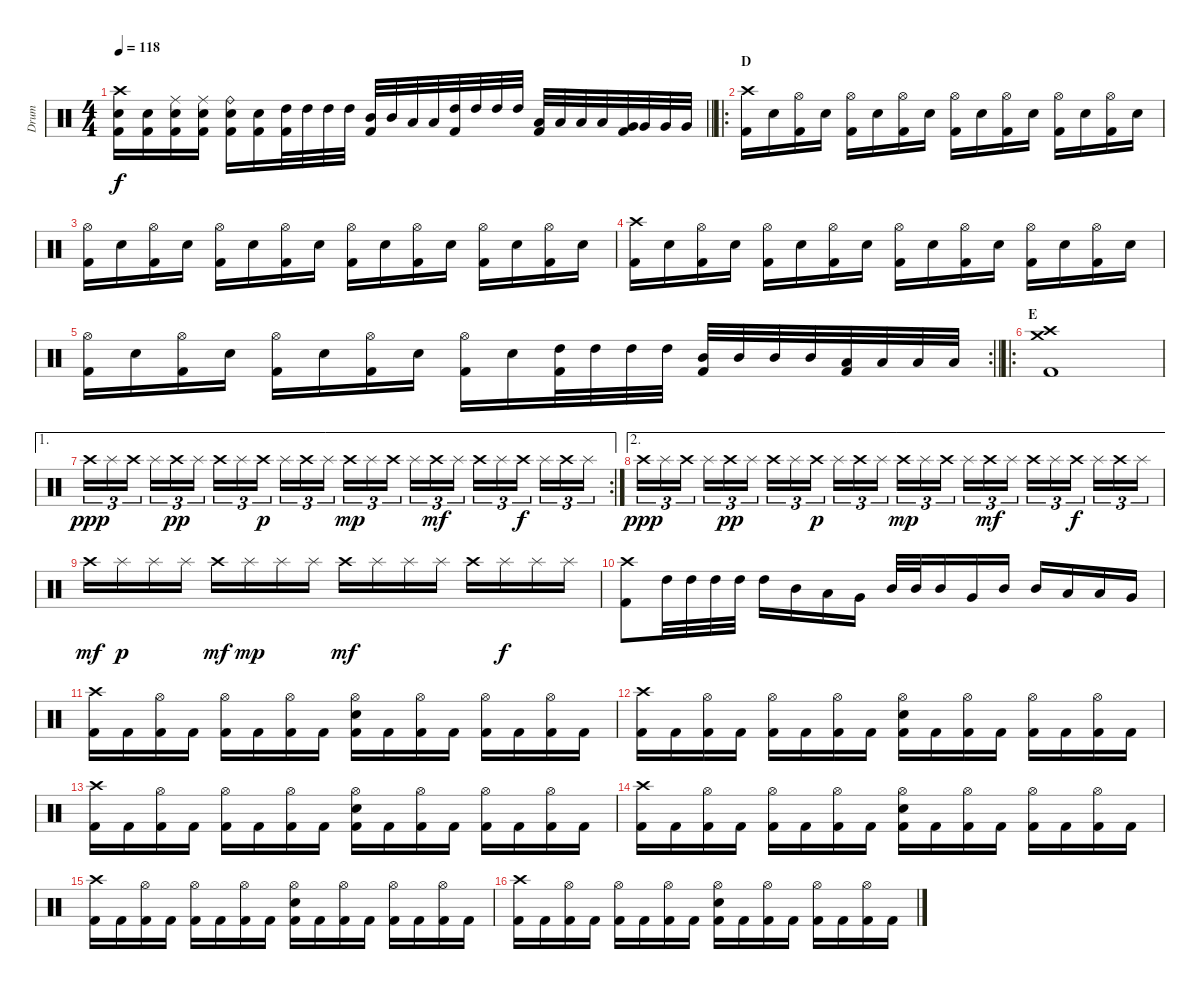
\track ("Drum" "Drum") {instrument percussion}
\staff {score}
\articulation defaults
\ts (4 4)
\tempo 118
\clef neutral
\barLineRight lightlight
\ks c
("Crash high (hit)" "Electric Snare (hit)" "Kick (hit) 2").16{dy f} ("Electric Snare (hit)" "Kick (hit) 2").16 ("Ride (middle)" "Electric Snare (hit)" "Kick (hit) 2").16 ("Ride (middle)" "Electric Snare (hit)" "Kick (hit) 2").16 ("Ride (bell)" "Electric Snare (hit)" "Kick (hit) 2").16 ("Electric Snare (hit)" "Kick (hit) 2").16 ("High Tom (hit)" "Kick (hit) 2").32 "High Tom (hit)".32 "High Tom (hit)".32 "High Tom (hit)".32 ("Mid Tom (hit)" "Kick (hit) 2").32 "Mid Tom (hit)".32 "Low Tom (hit)".32 "Low Tom (hit)".32 ("High Tom (hit)" "Kick (hit) 2").32 "High Tom (hit)".32 "High Tom (hit)".32 "High Tom (hit)".32 ("Low Tom (hit)" "Kick (hit) 2").32 "Low Tom (hit)".32 "Low Tom (hit)".32 "Low Tom (hit)".32 ("Very Low Tom (hit)" "Kick (hit) 2").32 "Very Low Tom (hit)".32 "Very Low Tom (hit)".32 "Very Low Tom (hit)".32 |
\ro
\section ("" "D")
("Crash high (hit)" "Kick (hit) 2").16 "Electric Snare (hit)".16 ("Hi-Hat (open)" "Kick (hit) 2").16 "Electric Snare (hit)".16 ("Hi-Hat (open)" "Kick (hit) 2").16 "Electric Snare (hit)".16 ("Hi-Hat (open)" "Kick (hit) 2").16 "Electric Snare (hit)".16 ("Hi-Hat (open)" "Kick (hit) 2").16 "Electric Snare (hit)".16 ("Hi-Hat (open)" "Kick (hit) 2").16 "Electric Snare (hit)".16 ("Hi-Hat (open)" "Kick (hit) 2").16 "Electric Snare (hit)".16 ("Hi-Hat (open)" "Kick (hit) 2").16 "Electric Snare (hit)".16 |
("Hi-Hat (open)" "Kick (hit) 2").16 "Electric Snare (hit)".16 ("Hi-Hat (open)" "Kick (hit) 2").16 "Electric Snare (hit)".16 ("Hi-Hat (open)" "Kick (hit) 2").16 "Electric Snare (hit)".16 ("Hi-Hat (open)" "Kick (hit) 2").16 "Electric Snare (hit)".16 ("Hi-Hat (open)" "Kick (hit) 2").16 "Electric Snare (hit)".16 ("Hi-Hat (open)" "Kick (hit) 2").16 "Electric Snare (hit)".16 ("Hi-Hat (open)" "Kick (hit) 2").16 "Electric Snare (hit)".16 ("Hi-Hat (open)" "Kick (hit) 2").16 "Electric Snare (hit)".16 |
("Crash high (hit)" "Kick (hit) 2").16 "Electric Snare (hit)".16 ("Hi-Hat (open)" "Kick (hit) 2").16 "Electric Snare (hit)".16 ("Hi-Hat (open)" "Kick (hit) 2").16 "Electric Snare (hit)".16 ("Hi-Hat (open)" "Kick (hit) 2").16 "Electric Snare (hit)".16 ("Hi-Hat (open)" "Kick (hit) 2").16 "Electric Snare (hit)".16 ("Hi-Hat (open)" "Kick (hit) 2").16 "Electric Snare (hit)".16 ("Hi-Hat (open)" "Kick (hit) 2").16 "Electric Snare (hit)".16 ("Hi-Hat (open)" "Kick (hit) 2").16 "Electric Snare (hit)".16 |
\rc 2
\barLineRight lightlight
("Hi-Hat (open)" "Kick (hit) 2").16 "Electric Snare (hit)".16 ("Hi-Hat (open)" "Kick (hit) 2").16 "Electric Snare (hit)".16 ("Hi-Hat (open)" "Kick (hit) 2").16 "Electric Snare (hit)".16 ("Hi-Hat (open)" "Kick (hit) 2").16 "Electric Snare (hit)".16 ("Hi-Hat (open)" "Kick (hit) 2").16 "Electric Snare (hit)".16 ("High Tom (hit)" "Kick (hit) 2").32 "High Tom (hit)".32 "High Tom (hit)".32 "High Tom (hit)".32 ("Mid Tom (hit)" "Kick (hit) 2").32 "Mid Tom (hit)".32 "Mid Tom (hit)".32 "Mid Tom (hit)".32 ("Low Tom (hit)" "Kick (hit) 2").32 "Low Tom (hit)".32 "Low Tom (hit)".32 "Low Tom (hit)".32 |
\ro
\section ("" "E")
("Crash high (hit)" "Crash medium (hit)" "Kick (hit) 2").1 |
\ae 1
\rc 2 "Crash high (hit)".16{tu (3 2) dy ppp} "Splash (hit)".16{tu (3 2)} "Crash high (hit)".16{tu (3 2) beam splitsecondary} "Splash (hit)".16{tu (3 2)} "Crash high (hit)".16{tu (3 2) dy pp} "Splash (hit)".16{tu (3 2)} "Crash high (hit)".16{tu (3 2)} "Splash (hit)".16{tu (3 2)} "Crash high (hit)".16{tu (3 2) dy p beam splitsecondary} "Splash (hit)".16{tu (3 2)} "Crash high (hit)".16{tu (3 2)} "Splash (hit)".16{tu (3 2)} "Crash high (hit)".16{tu (3 2) dy mp} "Splash (hit)".16{tu (3 2)} "Crash high (hit)".16{tu (3 2) beam splitsecondary} "Splash (hit)".16{tu (3 2)} "Crash high (hit)".16{tu (3 2) dy mf} "Splash (hit)".16{tu (3 2)} "Crash high (hit)".16{tu (3 2)} "Splash (hit)".16{tu (3 2)} "Crash high (hit)".16{tu (3 2) dy f beam splitsecondary} "Splash (hit)".16{tu (3 2)} "Crash high (hit)".16{tu (3 2)} "Splash (hit)".16{tu (3 2)}
|
\ae 2 "Crash high (hit)".16{tu (3 2) dy ppp} "Splash (hit)".16{tu (3 2)} "Crash high (hit)".16{tu (3 2) beam splitsecondary} "Splash (hit)".16{tu (3 2)} "Crash high (hit)".16{tu (3 2) dy pp} "Splash (hit)".16{tu (3 2)} "Crash high (hit)".16{tu (3 2)} "Splash (hit)".16{tu (3 2)} "Crash high (hit)".16{tu (3 2) dy p beam splitsecondary} "Splash (hit)".16{tu (3 2)} "Crash high (hit)".16{tu (3 2)} "Splash (hit)".16{tu (3 2)} "Crash high (hit)".16{tu (3 2) dy mp} "Splash (hit)".16{tu (3 2)} "Crash high (hit)".16{tu (3 2) beam splitsecondary} "Splash (hit)".16{tu (3 2)} "Crash high (hit)".16{tu (3 2) dy mf} "Splash (hit)".16{tu (3 2)} "Crash high (hit)".16{tu (3 2)} "Splash (hit)".16{tu (3 2)} "Crash high (hit)".16{tu (3 2) dy f beam splitsecondary} "Splash (hit)".16{tu (3 2)} "Crash high (hit)".16{tu (3 2)} "Splash (hit)".16{tu (3 2)}
|
"Crash high (hit)".16{dy mf} "Splash (hit)".16{dy p} "Splash (hit)".16 "Splash (hit)".16 "Crash high (hit)".16{dy mf} "Splash (hit)".16{dy mp} "Splash (hit)".16 "Splash (hit)".16 "Crash high (hit)".16{dy mf} "Splash (hit)".16 "Splash (hit)".16 "Splash (hit)".16 "Crash high (hit)".16 "Splash (hit)".16{dy f} "Splash (hit)".16 "Splash (hit)".16 |
("Crash high (hit)" "Kick (hit) 2").8 "High Tom (hit)".32 "High Tom (hit)".32 "High Tom (hit)".32 "High Tom (hit)".32 "High Tom (hit)".16 "Mid Tom (hit)".16 "Low Tom (hit)".16 "Very Low Tom (hit)".16 "Mid Tom (hit)".32 "Mid Tom (hit)".32 "Mid Tom (hit)".16 "Very Low Tom (hit)".16 "Mid Tom (hit)".16 "Mid Tom (hit)".16 "Low Tom (hit)".16 "Low Tom (hit)".16 "Very Low Tom (hit)".16 |
("Crash high (hit)" "Kick (hit) 2").16 "Kick (hit) 2".16 ("Hi-Hat (open)" "Kick (hit) 2").16 "Kick (hit) 2".16 ("Hi-Hat (open)" "Kick (hit) 2").16 "Kick (hit) 2".16 ("Hi-Hat (open)" "Kick (hit) 2").16 "Kick (hit) 2".16 ("Hi-Hat (open)" "Electric Snare (hit)" "Kick (hit) 2").16 "Kick (hit) 2".16 ("Hi-Hat (open)" "Kick (hit) 2").16 "Kick (hit) 2".16 ("Hi-Hat (open)" "Kick (hit) 2").16 "Kick (hit) 2".16 ("Hi-Hat (open)" "Kick (hit) 2").16 "Kick (hit) 2".16 |
("Crash high (hit)" "Kick (hit) 2").16 "Kick (hit) 2".16 ("Hi-Hat (open)" "Kick (hit) 2").16 "Kick (hit) 2".16 ("Hi-Hat (open)" "Kick (hit) 2").16 "Kick (hit) 2".16 ("Hi-Hat (open)" "Kick (hit) 2").16 "Kick (hit) 2".16 ("Hi-Hat (open)" "Electric Snare (hit)" "Kick (hit) 2").16 "Kick (hit) 2".16 ("Hi-Hat (open)" "Kick (hit) 2").16 "Kick (hit) 2".16 ("Hi-Hat (open)" "Kick (hit) 2").16 "Kick (hit) 2".16 ("Hi-Hat (open)" "Kick (hit) 2").16 "Kick (hit) 2".16 |
("Crash high (hit)" "Kick (hit) 2").16 "Kick (hit) 2".16 ("Hi-Hat (open)" "Kick (hit) 2").16 "Kick (hit) 2".16 ("Hi-Hat (open)" "Kick (hit) 2").16 "Kick (hit) 2".16 ("Hi-Hat (open)" "Kick (hit) 2").16 "Kick (hit) 2".16 ("Hi-Hat (open)" "Electric Snare (hit)" "Kick (hit) 2").16 "Kick (hit) 2".16 ("Hi-Hat (open)" "Kick (hit) 2").16 "Kick (hit) 2".16 ("Hi-Hat (open)" "Kick (hit) 2").16 "Kick (hit) 2".16 ("Hi-Hat (open)" "Kick (hit) 2").16 "Kick (hit) 2".16 |
("Crash high (hit)" "Kick (hit) 2").16 "Kick (hit) 2".16 ("Hi-Hat (open)" "Kick (hit) 2").16 "Kick (hit) 2".16 ("Hi-Hat (open)" "Kick (hit) 2").16 "Kick (hit) 2".16 ("Hi-Hat (open)" "Kick (hit) 2").16 "Kick (hit) 2".16 ("Hi-Hat (open)" "Electric Snare (hit)" "Kick (hit) 2").16 "Kick (hit) 2".16 ("Hi-Hat (open)" "Kick (hit) 2").16 "Kick (hit) 2".16 ("Hi-Hat (open)" "Kick (hit) 2").16 "Kick (hit) 2".16 ("Hi-Hat (open)" "Kick (hit) 2").16 "Kick (hit) 2".16 |
("Crash high (hit)" "Kick (hit) 2").16 "Kick (hit) 2".16 ("Hi-Hat (open)" "Kick (hit) 2").16 "Kick (hit) 2".16 ("Hi-Hat (open)" "Kick (hit) 2").16 "Kick (hit) 2".16 ("Hi-Hat (open)" "Kick (hit) 2").16 "Kick (hit) 2".16 ("Hi-Hat (open)" "Electric Snare (hit)" "Kick (hit) 2").16 "Kick (hit) 2".16 ("Hi-Hat (open)" "Kick (hit) 2").16 "Kick (hit) 2".16 ("Hi-Hat (open)" "Kick (hit) 2").16 "Kick (hit) 2".16 ("Hi-Hat (open)" "Kick (hit) 2").16 "Kick (hit) 2".16 |
("Crash high (hit)" "Kick (hit) 2").16 "Kick (hit) 2".16 ("Hi-Hat (open)" "Kick (hit) 2").16 "Kick (hit) 2".16 ("Hi-Hat (open)" "Kick (hit) 2").16 "Kick (hit) 2".16 ("Hi-Hat (open)" "Kick (hit) 2").16 "Kick (hit) 2".16 ("Hi-Hat (open)" "Electric Snare (hit)" "Kick (hit) 2").16 "Kick (hit) 2".16 ("Hi-Hat (open)" "Kick (hit) 2").16 "Kick (hit) 2".16 ("Hi-Hat (open)" "Kick (hit) 2").16 "Kick (hit) 2".16 ("Hi-Hat (open)" "Kick (hit) 2").16 "Kick (hit) 2".16
